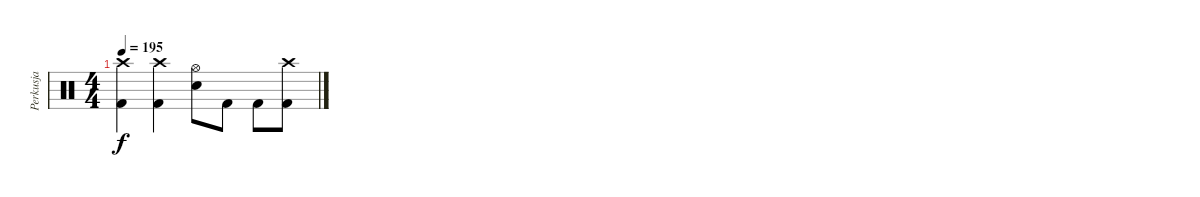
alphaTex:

\track ("Perkusja" "Perkusja") {instrument percussion}
\staff {score}
\articulation defaults
\ts (4 4)
\tempo 195
\clef neutral
\ks c
("Kick (hit) 2" "Crash high (hit)").4{dy f} ("Kick (hit) 2" "Crash high (hit)").4 ("Electric Snare (hit)" "Hi-Hat (open)").8 "Kick (hit) 2".8 "Kick (hit) 2".8 ("Kick (hit) 2" "Crash high (hit)").8
